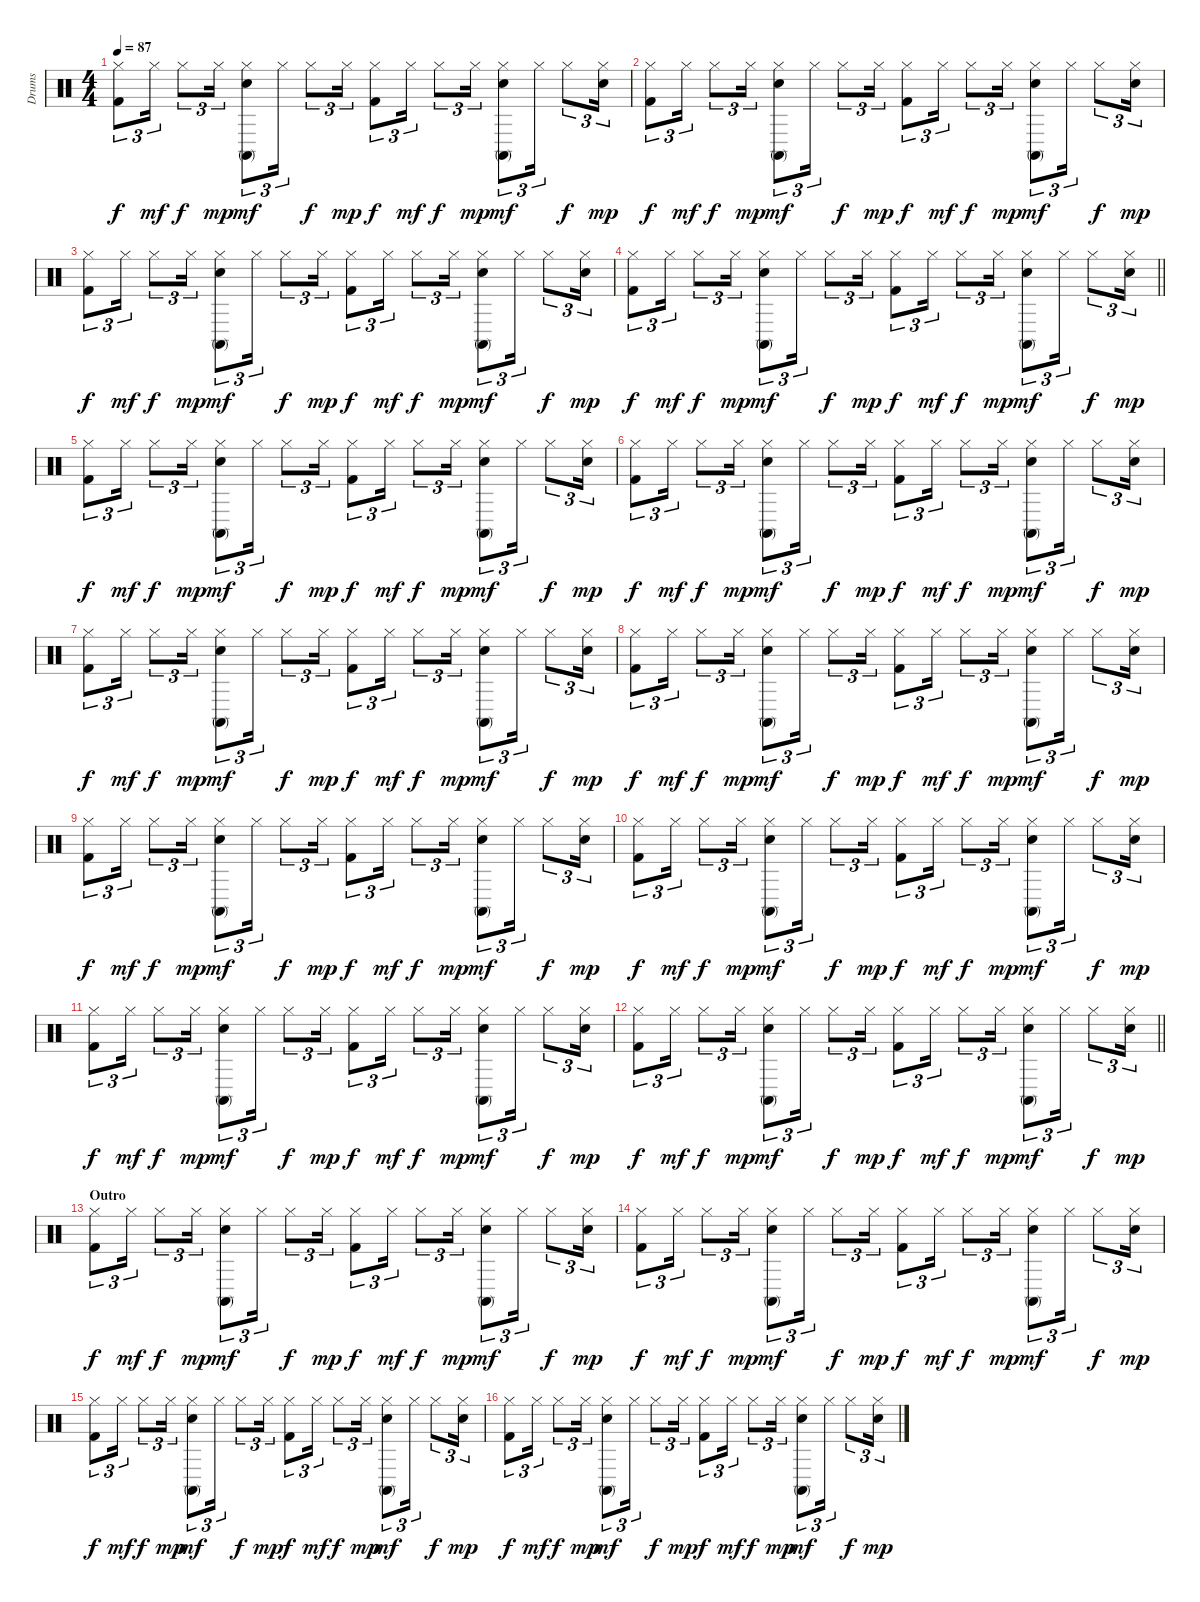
\track ("Drums" "Drums") {instrument percussion}
\staff {score}
\articulation defaults
\ts (4 4)
\tempo 87
\clef neutral
\ks c
("Hi-Hat (closed)" "Kick (hit) 2").8{tu (3 2) dy f} "Hi-Hat (closed)".16{tu (3 2) dy mf} "Hi-Hat (closed)".8{tu (3 2) dy f} "Hi-Hat (closed)".16{tu (3 2) dy mp} ("Conga high (mute)" "Hi-Hat (closed)" "Electric Snare (hit)").8{tu (3 2) dy mf} "Hi-Hat (closed)".16{tu (3 2)} "Hi-Hat (closed)".8{tu (3 2) dy f} "Hi-Hat (closed)".16{tu (3 2) dy mp} ("Hi-Hat (closed)" "Kick (hit) 2").8{tu (3 2) dy f} "Hi-Hat (closed)".16{tu (3 2) dy mf} "Hi-Hat (closed)".8{tu (3 2) dy f} "Hi-Hat (closed)".16{tu (3 2) dy mp} ("Conga high (mute)" "Hi-Hat (closed)" "Electric Snare (hit)").8{tu (3 2) dy mf} "Hi-Hat (closed)".16{tu (3 2)} "Hi-Hat (closed)".8{tu (3 2) dy f} ("Hi-Hat (closed)" "Electric Snare (hit)").16{tu (3 2) dy mp} |
("Hi-Hat (closed)" "Kick (hit) 2").8{tu (3 2) dy f} "Hi-Hat (closed)".16{tu (3 2) dy mf} "Hi-Hat (closed)".8{tu (3 2) dy f} "Hi-Hat (closed)".16{tu (3 2) dy mp} ("Conga high (mute)" "Hi-Hat (closed)" "Electric Snare (hit)").8{tu (3 2) dy mf} "Hi-Hat (closed)".16{tu (3 2)} "Hi-Hat (closed)".8{tu (3 2) dy f} "Hi-Hat (closed)".16{tu (3 2) dy mp} ("Hi-Hat (closed)" "Kick (hit) 2").8{tu (3 2) dy f} "Hi-Hat (closed)".16{tu (3 2) dy mf} "Hi-Hat (closed)".8{tu (3 2) dy f} "Hi-Hat (closed)".16{tu (3 2) dy mp} ("Conga high (mute)" "Hi-Hat (closed)" "Electric Snare (hit)").8{tu (3 2) dy mf} "Hi-Hat (closed)".16{tu (3 2)} "Hi-Hat (closed)".8{tu (3 2) dy f} ("Hi-Hat (closed)" "Electric Snare (hit)").16{tu (3 2) dy mp} |
("Hi-Hat (closed)" "Kick (hit) 2").8{tu (3 2) dy f} "Hi-Hat (closed)".16{tu (3 2) dy mf} "Hi-Hat (closed)".8{tu (3 2) dy f} "Hi-Hat (closed)".16{tu (3 2) dy mp} ("Conga high (mute)" "Hi-Hat (closed)" "Electric Snare (hit)").8{tu (3 2) dy mf} "Hi-Hat (closed)".16{tu (3 2)} "Hi-Hat (closed)".8{tu (3 2) dy f} "Hi-Hat (closed)".16{tu (3 2) dy mp} ("Hi-Hat (closed)" "Kick (hit) 2").8{tu (3 2) dy f} "Hi-Hat (closed)".16{tu (3 2) dy mf} "Hi-Hat (closed)".8{tu (3 2) dy f} "Hi-Hat (closed)".16{tu (3 2) dy mp} ("Conga high (mute)" "Hi-Hat (closed)" "Electric Snare (hit)").8{tu (3 2) dy mf} "Hi-Hat (closed)".16{tu (3 2)} "Hi-Hat (closed)".8{tu (3 2) dy f} ("Hi-Hat (closed)" "Electric Snare (hit)").16{tu (3 2) dy mp} |
\barLineRight lightlight
("Hi-Hat (closed)" "Kick (hit) 2").8{tu (3 2) dy f} "Hi-Hat (closed)".16{tu (3 2) dy mf} "Hi-Hat (closed)".8{tu (3 2) dy f} "Hi-Hat (closed)".16{tu (3 2) dy mp} ("Conga high (mute)" "Hi-Hat (closed)" "Electric Snare (hit)").8{tu (3 2) dy mf} "Hi-Hat (closed)".16{tu (3 2)} "Hi-Hat (closed)".8{tu (3 2) dy f} "Hi-Hat (closed)".16{tu (3 2) dy mp} ("Hi-Hat (closed)" "Kick (hit) 2").8{tu (3 2) dy f} "Hi-Hat (closed)".16{tu (3 2) dy mf} "Hi-Hat (closed)".8{tu (3 2) dy f} "Hi-Hat (closed)".16{tu (3 2) dy mp} ("Conga high (mute)" "Hi-Hat (closed)" "Electric Snare (hit)").8{tu (3 2) dy mf} "Hi-Hat (closed)".16{tu (3 2)} "Hi-Hat (closed)".8{tu (3 2) dy f} ("Hi-Hat (closed)" "Electric Snare (hit)").16{tu (3 2) dy mp} |
("Hi-Hat (closed)" "Kick (hit) 2").8{tu (3 2) dy f} "Hi-Hat (closed)".16{tu (3 2) dy mf} "Hi-Hat (closed)".8{tu (3 2) dy f} "Hi-Hat (closed)".16{tu (3 2) dy mp} ("Conga high (mute)" "Hi-Hat (closed)" "Electric Snare (hit)").8{tu (3 2) dy mf} "Hi-Hat (closed)".16{tu (3 2)} "Hi-Hat (closed)".8{tu (3 2) dy f} "Hi-Hat (closed)".16{tu (3 2) dy mp} ("Hi-Hat (closed)" "Kick (hit) 2").8{tu (3 2) dy f} "Hi-Hat (closed)".16{tu (3 2) dy mf} "Hi-Hat (closed)".8{tu (3 2) dy f} "Hi-Hat (closed)".16{tu (3 2) dy mp} ("Conga high (mute)" "Hi-Hat (closed)" "Electric Snare (hit)").8{tu (3 2) dy mf} "Hi-Hat (closed)".16{tu (3 2)} "Hi-Hat (closed)".8{tu (3 2) dy f} ("Hi-Hat (closed)" "Electric Snare (hit)").16{tu (3 2) dy mp} |
("Hi-Hat (closed)" "Kick (hit) 2").8{tu (3 2) dy f} "Hi-Hat (closed)".16{tu (3 2) dy mf} "Hi-Hat (closed)".8{tu (3 2) dy f} "Hi-Hat (closed)".16{tu (3 2) dy mp} ("Conga high (mute)" "Hi-Hat (closed)" "Electric Snare (hit)").8{tu (3 2) dy mf} "Hi-Hat (closed)".16{tu (3 2)} "Hi-Hat (closed)".8{tu (3 2) dy f} "Hi-Hat (closed)".16{tu (3 2) dy mp} ("Hi-Hat (closed)" "Kick (hit) 2").8{tu (3 2) dy f} "Hi-Hat (closed)".16{tu (3 2) dy mf} "Hi-Hat (closed)".8{tu (3 2) dy f} "Hi-Hat (closed)".16{tu (3 2) dy mp} ("Conga high (mute)" "Hi-Hat (closed)" "Electric Snare (hit)").8{tu (3 2) dy mf} "Hi-Hat (closed)".16{tu (3 2)} "Hi-Hat (closed)".8{tu (3 2) dy f} ("Hi-Hat (closed)" "Electric Snare (hit)").16{tu (3 2) dy mp} |
("Hi-Hat (closed)" "Kick (hit) 2").8{tu (3 2) dy f} "Hi-Hat (closed)".16{tu (3 2) dy mf} "Hi-Hat (closed)".8{tu (3 2) dy f} "Hi-Hat (closed)".16{tu (3 2) dy mp} ("Conga high (mute)" "Hi-Hat (closed)" "Electric Snare (hit)").8{tu (3 2) dy mf} "Hi-Hat (closed)".16{tu (3 2)} "Hi-Hat (closed)".8{tu (3 2) dy f} "Hi-Hat (closed)".16{tu (3 2) dy mp} ("Hi-Hat (closed)" "Kick (hit) 2").8{tu (3 2) dy f} "Hi-Hat (closed)".16{tu (3 2) dy mf} "Hi-Hat (closed)".8{tu (3 2) dy f} "Hi-Hat (closed)".16{tu (3 2) dy mp} ("Conga high (mute)" "Hi-Hat (closed)" "Electric Snare (hit)").8{tu (3 2) dy mf} "Hi-Hat (closed)".16{tu (3 2)} "Hi-Hat (closed)".8{tu (3 2) dy f} ("Hi-Hat (closed)" "Electric Snare (hit)").16{tu (3 2) dy mp} |
("Hi-Hat (closed)" "Kick (hit) 2").8{tu (3 2) dy f} "Hi-Hat (closed)".16{tu (3 2) dy mf} "Hi-Hat (closed)".8{tu (3 2) dy f} "Hi-Hat (closed)".16{tu (3 2) dy mp} ("Conga high (mute)" "Hi-Hat (closed)" "Electric Snare (hit)").8{tu (3 2) dy mf} "Hi-Hat (closed)".16{tu (3 2)} "Hi-Hat (closed)".8{tu (3 2) dy f} "Hi-Hat (closed)".16{tu (3 2) dy mp} ("Hi-Hat (closed)" "Kick (hit) 2").8{tu (3 2) dy f} "Hi-Hat (closed)".16{tu (3 2) dy mf} "Hi-Hat (closed)".8{tu (3 2) dy f} "Hi-Hat (closed)".16{tu (3 2) dy mp} ("Conga high (mute)" "Hi-Hat (closed)" "Electric Snare (hit)").8{tu (3 2) dy mf} "Hi-Hat (closed)".16{tu (3 2)} "Hi-Hat (closed)".8{tu (3 2) dy f} ("Hi-Hat (closed)" "Electric Snare (hit)").16{tu (3 2) dy mp} |
("Hi-Hat (closed)" "Kick (hit) 2").8{tu (3 2) dy f} "Hi-Hat (closed)".16{tu (3 2) dy mf} "Hi-Hat (closed)".8{tu (3 2) dy f} "Hi-Hat (closed)".16{tu (3 2) dy mp} ("Conga high (mute)" "Hi-Hat (closed)" "Electric Snare (hit)").8{tu (3 2) dy mf} "Hi-Hat (closed)".16{tu (3 2)} "Hi-Hat (closed)".8{tu (3 2) dy f} "Hi-Hat (closed)".16{tu (3 2) dy mp} ("Hi-Hat (closed)" "Kick (hit) 2").8{tu (3 2) dy f} "Hi-Hat (closed)".16{tu (3 2) dy mf} "Hi-Hat (closed)".8{tu (3 2) dy f} "Hi-Hat (closed)".16{tu (3 2) dy mp} ("Conga high (mute)" "Hi-Hat (closed)" "Electric Snare (hit)").8{tu (3 2) dy mf} "Hi-Hat (closed)".16{tu (3 2)} "Hi-Hat (closed)".8{tu (3 2) dy f} ("Hi-Hat (closed)" "Electric Snare (hit)").16{tu (3 2) dy mp} |
("Hi-Hat (closed)" "Kick (hit) 2").8{tu (3 2) dy f} "Hi-Hat (closed)".16{tu (3 2) dy mf} "Hi-Hat (closed)".8{tu (3 2) dy f} "Hi-Hat (closed)".16{tu (3 2) dy mp} ("Conga high (mute)" "Hi-Hat (closed)" "Electric Snare (hit)").8{tu (3 2) dy mf} "Hi-Hat (closed)".16{tu (3 2)} "Hi-Hat (closed)".8{tu (3 2) dy f} "Hi-Hat (closed)".16{tu (3 2) dy mp} ("Hi-Hat (closed)" "Kick (hit) 2").8{tu (3 2) dy f} "Hi-Hat (closed)".16{tu (3 2) dy mf} "Hi-Hat (closed)".8{tu (3 2) dy f} "Hi-Hat (closed)".16{tu (3 2) dy mp} ("Conga high (mute)" "Hi-Hat (closed)" "Electric Snare (hit)").8{tu (3 2) dy mf} "Hi-Hat (closed)".16{tu (3 2)} "Hi-Hat (closed)".8{tu (3 2) dy f} ("Hi-Hat (closed)" "Electric Snare (hit)").16{tu (3 2) dy mp} |
("Hi-Hat (closed)" "Kick (hit) 2").8{tu (3 2) dy f} "Hi-Hat (closed)".16{tu (3 2) dy mf} "Hi-Hat (closed)".8{tu (3 2) dy f} "Hi-Hat (closed)".16{tu (3 2) dy mp} ("Conga high (mute)" "Hi-Hat (closed)" "Electric Snare (hit)").8{tu (3 2) dy mf} "Hi-Hat (closed)".16{tu (3 2)} "Hi-Hat (closed)".8{tu (3 2) dy f} "Hi-Hat (closed)".16{tu (3 2) dy mp} ("Hi-Hat (closed)" "Kick (hit) 2").8{tu (3 2) dy f} "Hi-Hat (closed)".16{tu (3 2) dy mf} "Hi-Hat (closed)".8{tu (3 2) dy f} "Hi-Hat (closed)".16{tu (3 2) dy mp} ("Conga high (mute)" "Hi-Hat (closed)" "Electric Snare (hit)").8{tu (3 2) dy mf} "Hi-Hat (closed)".16{tu (3 2)} "Hi-Hat (closed)".8{tu (3 2) dy f} ("Hi-Hat (closed)" "Electric Snare (hit)").16{tu (3 2) dy mp} |
\barLineRight lightlight
("Hi-Hat (closed)" "Kick (hit) 2").8{tu (3 2) dy f} "Hi-Hat (closed)".16{tu (3 2) dy mf} "Hi-Hat (closed)".8{tu (3 2) dy f} "Hi-Hat (closed)".16{tu (3 2) dy mp} ("Conga high (mute)" "Hi-Hat (closed)" "Electric Snare (hit)").8{tu (3 2) dy mf} "Hi-Hat (closed)".16{tu (3 2)} "Hi-Hat (closed)".8{tu (3 2) dy f} "Hi-Hat (closed)".16{tu (3 2) dy mp} ("Hi-Hat (closed)" "Kick (hit) 2").8{tu (3 2) dy f} "Hi-Hat (closed)".16{tu (3 2) dy mf} "Hi-Hat (closed)".8{tu (3 2) dy f} "Hi-Hat (closed)".16{tu (3 2) dy mp} ("Conga high (mute)" "Hi-Hat (closed)" "Electric Snare (hit)").8{tu (3 2) dy mf} "Hi-Hat (closed)".16{tu (3 2)} "Hi-Hat (closed)".8{tu (3 2) dy f} ("Hi-Hat (closed)" "Electric Snare (hit)").16{tu (3 2) dy mp} |
\section ("" "Outro")
("Hi-Hat (closed)" "Kick (hit) 2").8{tu (3 2) dy f} "Hi-Hat (closed)".16{tu (3 2) dy mf} "Hi-Hat (closed)".8{tu (3 2) dy f} "Hi-Hat (closed)".16{tu (3 2) dy mp} ("Conga high (mute)" "Hi-Hat (closed)" "Electric Snare (hit)").8{tu (3 2) dy mf} "Hi-Hat (closed)".16{tu (3 2)} "Hi-Hat (closed)".8{tu (3 2) dy f} "Hi-Hat (closed)".16{tu (3 2) dy mp} ("Hi-Hat (closed)" "Kick (hit) 2").8{tu (3 2) dy f} "Hi-Hat (closed)".16{tu (3 2) dy mf} "Hi-Hat (closed)".8{tu (3 2) dy f} "Hi-Hat (closed)".16{tu (3 2) dy mp} ("Conga high (mute)" "Hi-Hat (closed)" "Electric Snare (hit)").8{tu (3 2) dy mf} "Hi-Hat (closed)".16{tu (3 2)} "Hi-Hat (closed)".8{tu (3 2) dy f} ("Hi-Hat (closed)" "Electric Snare (hit)").16{tu (3 2) dy mp} |
("Hi-Hat (closed)" "Kick (hit) 2").8{tu (3 2) dy f} "Hi-Hat (closed)".16{tu (3 2) dy mf} "Hi-Hat (closed)".8{tu (3 2) dy f} "Hi-Hat (closed)".16{tu (3 2) dy mp} ("Conga high (mute)" "Hi-Hat (closed)" "Electric Snare (hit)").8{tu (3 2) dy mf} "Hi-Hat (closed)".16{tu (3 2)} "Hi-Hat (closed)".8{tu (3 2) dy f} "Hi-Hat (closed)".16{tu (3 2) dy mp} ("Hi-Hat (closed)" "Kick (hit) 2").8{tu (3 2) dy f} "Hi-Hat (closed)".16{tu (3 2) dy mf} "Hi-Hat (closed)".8{tu (3 2) dy f} "Hi-Hat (closed)".16{tu (3 2) dy mp} ("Conga high (mute)" "Hi-Hat (closed)" "Electric Snare (hit)").8{tu (3 2) dy mf} "Hi-Hat (closed)".16{tu (3 2)} "Hi-Hat (closed)".8{tu (3 2) dy f} ("Hi-Hat (closed)" "Electric Snare (hit)").16{tu (3 2) dy mp} |
("Hi-Hat (closed)" "Kick (hit) 2").8{tu (3 2) dy f} "Hi-Hat (closed)".16{tu (3 2) dy mf} "Hi-Hat (closed)".8{tu (3 2) dy f} "Hi-Hat (closed)".16{tu (3 2) dy mp} ("Conga high (mute)" "Hi-Hat (closed)" "Electric Snare (hit)").8{tu (3 2) dy mf} "Hi-Hat (closed)".16{tu (3 2)} "Hi-Hat (closed)".8{tu (3 2) dy f} "Hi-Hat (closed)".16{tu (3 2) dy mp} ("Hi-Hat (closed)" "Kick (hit) 2").8{tu (3 2) dy f} "Hi-Hat (closed)".16{tu (3 2) dy mf} "Hi-Hat (closed)".8{tu (3 2) dy f} "Hi-Hat (closed)".16{tu (3 2) dy mp} ("Conga high (mute)" "Hi-Hat (closed)" "Electric Snare (hit)").8{tu (3 2) dy mf} "Hi-Hat (closed)".16{tu (3 2)} "Hi-Hat (closed)".8{tu (3 2) dy f} ("Hi-Hat (closed)" "Electric Snare (hit)").16{tu (3 2) dy mp} |
("Hi-Hat (closed)" "Kick (hit) 2").8{tu (3 2) dy f} "Hi-Hat (closed)".16{tu (3 2) dy mf} "Hi-Hat (closed)".8{tu (3 2) dy f} "Hi-Hat (closed)".16{tu (3 2) dy mp} ("Conga high (mute)" "Hi-Hat (closed)" "Electric Snare (hit)").8{tu (3 2) dy mf} "Hi-Hat (closed)".16{tu (3 2)} "Hi-Hat (closed)".8{tu (3 2) dy f} "Hi-Hat (closed)".16{tu (3 2) dy mp} ("Hi-Hat (closed)" "Kick (hit) 2").8{tu (3 2) dy f} "Hi-Hat (closed)".16{tu (3 2) dy mf} "Hi-Hat (closed)".8{tu (3 2) dy f} "Hi-Hat (closed)".16{tu (3 2) dy mp} ("Conga high (mute)" "Hi-Hat (closed)" "Electric Snare (hit)").8{tu (3 2) dy mf} "Hi-Hat (closed)".16{tu (3 2)} "Hi-Hat (closed)".8{tu (3 2) dy f} ("Hi-Hat (closed)" "Electric Snare (hit)").16{tu (3 2) dy mp}
